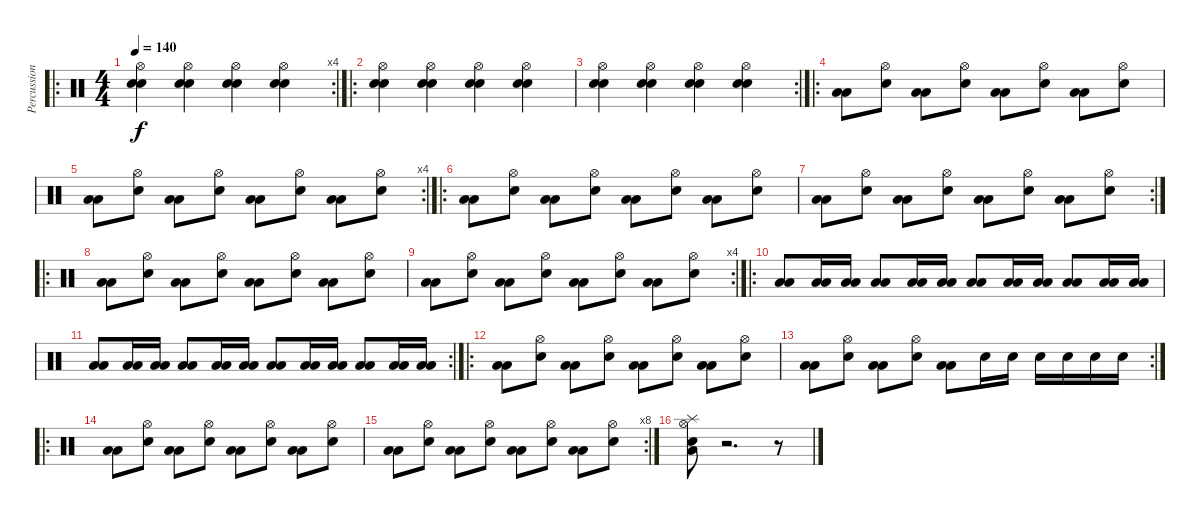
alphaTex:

\track ("Percussions" "Percussion") {instrument percussion}
\staff {score}
\articulation defaults
\ro
\rc 4
\ts (4 4)
\tempo 140
\clef neutral
\ks c
("Snare (hit) 2" "Electric Snare (hit)" "Hi-Hat (open)").4{dy f} ("Snare (hit) 2" "Electric Snare (hit)" "Hi-Hat (open)").4 ("Snare (hit) 2" "Electric Snare (hit)" "Hi-Hat (open)").4 ("Snare (hit) 2" "Electric Snare (hit)" "Hi-Hat (open)").4 |
\ro
("Snare (hit) 2" "Electric Snare (hit)" "Hi-Hat (open)").4 ("Snare (hit) 2" "Electric Snare (hit)" "Hi-Hat (open)").4 ("Snare (hit) 2" "Electric Snare (hit)" "Hi-Hat (open)").4 ("Snare (hit) 2" "Electric Snare (hit)" "Hi-Hat (open)").4 |
\rc 2
("Snare (hit) 2" "Electric Snare (hit)" "Hi-Hat (open)").4 ("Snare (hit) 2" "Electric Snare (hit)" "Hi-Hat (open)").4 ("Snare (hit) 2" "Electric Snare (hit)" "Hi-Hat (open)").4 ("Snare (hit) 2" "Electric Snare (hit)" "Hi-Hat (open)").4 |
\ro
("Low Floor Tom (hit)" "Low Floor Tom (hit)").8 ("Snare (hit) 2" "Hi-Hat (open)").8 ("Low Floor Tom (hit)" "Low Floor Tom (hit)").8 ("Snare (hit) 2" "Hi-Hat (open)").8 ("Low Floor Tom (hit)" "Low Floor Tom (hit)").8 ("Snare (hit) 2" "Hi-Hat (open)").8 ("Low Floor Tom (hit)" "Low Floor Tom (hit)").8 ("Snare (hit) 2" "Hi-Hat (open)").8 |
\rc 4
("Low Floor Tom (hit)" "Low Floor Tom (hit)").8 ("Snare (hit) 2" "Hi-Hat (open)").8 ("Low Floor Tom (hit)" "Low Floor Tom (hit)").8 ("Snare (hit) 2" "Hi-Hat (open)").8 ("Low Floor Tom (hit)" "Low Floor Tom (hit)").8 ("Snare (hit) 2" "Hi-Hat (open)").8 ("Low Floor Tom (hit)" "Low Floor Tom (hit)").8 ("Snare (hit) 2" "Hi-Hat (open)").8 |
\ro
("Low Floor Tom (hit)" "Low Floor Tom (hit)").8 ("Snare (hit) 2" "Hi-Hat (open)").8 ("Low Floor Tom (hit)" "Low Floor Tom (hit)").8 ("Snare (hit) 2" "Hi-Hat (open)").8 ("Low Floor Tom (hit)" "Low Floor Tom (hit)").8 ("Snare (hit) 2" "Hi-Hat (open)").8 ("Low Floor Tom (hit)" "Low Floor Tom (hit)").8 ("Snare (hit) 2" "Hi-Hat (open)").8 |
\rc 2
("Low Floor Tom (hit)" "Low Floor Tom (hit)").8 ("Snare (hit) 2" "Hi-Hat (open)").8 ("Low Floor Tom (hit)" "Low Floor Tom (hit)").8 ("Snare (hit) 2" "Hi-Hat (open)").8 ("Low Floor Tom (hit)" "Low Floor Tom (hit)").8 ("Snare (hit) 2" "Hi-Hat (open)").8 ("Low Floor Tom (hit)" "Low Floor Tom (hit)").8 ("Snare (hit) 2" "Hi-Hat (open)").8 |
\ro
("Low Floor Tom (hit)" "Low Floor Tom (hit)").8 ("Snare (hit) 2" "Hi-Hat (open)").8 ("Low Floor Tom (hit)" "Low Floor Tom (hit)").8 ("Snare (hit) 2" "Hi-Hat (open)").8 ("Low Floor Tom (hit)" "Low Floor Tom (hit)").8 ("Snare (hit) 2" "Hi-Hat (open)").8 ("Low Floor Tom (hit)" "Low Floor Tom (hit)").8 ("Snare (hit) 2" "Hi-Hat (open)").8 |
\rc 4
("Low Floor Tom (hit)" "Low Floor Tom (hit)").8 ("Snare (hit) 2" "Hi-Hat (open)").8 ("Low Floor Tom (hit)" "Low Floor Tom (hit)").8 ("Snare (hit) 2" "Hi-Hat (open)").8 ("Low Floor Tom (hit)" "Low Floor Tom (hit)").8 ("Snare (hit) 2" "Hi-Hat (open)").8 ("Low Floor Tom (hit)" "Low Floor Tom (hit)").8 ("Snare (hit) 2" "Hi-Hat (open)").8 |
\ro
("Low Floor Tom (hit)" "Low Floor Tom (hit)").8 ("Low Floor Tom (hit)" "Low Floor Tom (hit)").16 ("Low Floor Tom (hit)" "Low Floor Tom (hit)").16 ("Low Floor Tom (hit)" "Low Floor Tom (hit)").8 ("Low Floor Tom (hit)" "Low Floor Tom (hit)").16 ("Low Floor Tom (hit)" "Low Floor Tom (hit)").16 ("Low Floor Tom (hit)" "Low Floor Tom (hit)").8 ("Low Floor Tom (hit)" "Low Floor Tom (hit)").16 ("Low Floor Tom (hit)" "Low Floor Tom (hit)").16 ("Low Floor Tom (hit)" "Low Floor Tom (hit)").8 ("Low Floor Tom (hit)" "Low Floor Tom (hit)").16 ("Low Floor Tom (hit)" "Low Floor Tom (hit)").16 |
\rc 2
("Low Floor Tom (hit)" "Low Floor Tom (hit)").8 ("Low Floor Tom (hit)" "Low Floor Tom (hit)").16 ("Low Floor Tom (hit)" "Low Floor Tom (hit)").16 ("Low Floor Tom (hit)" "Low Floor Tom (hit)").8 ("Low Floor Tom (hit)" "Low Floor Tom (hit)").16 ("Low Floor Tom (hit)" "Low Floor Tom (hit)").16 ("Low Floor Tom (hit)" "Low Floor Tom (hit)").8 ("Low Floor Tom (hit)" "Low Floor Tom (hit)").16 ("Low Floor Tom (hit)" "Low Floor Tom (hit)").16 ("Low Floor Tom (hit)" "Low Floor Tom (hit)").8 ("Low Floor Tom (hit)" "Low Floor Tom (hit)").16 ("Low Floor Tom (hit)" "Low Floor Tom (hit)").16 |
\ro
("Low Floor Tom (hit)" "Low Floor Tom (hit)").8 ("Snare (hit) 2" "Hi-Hat (open)").8 ("Low Floor Tom (hit)" "Low Floor Tom (hit)").8 ("Snare (hit) 2" "Hi-Hat (open)").8 ("Low Floor Tom (hit)" "Low Floor Tom (hit)").8 ("Snare (hit) 2" "Hi-Hat (open)").8 ("Low Floor Tom (hit)" "Low Floor Tom (hit)").8 ("Snare (hit) 2" "Hi-Hat (open)").8 |
\rc 2
("Low Floor Tom (hit)" "Low Floor Tom (hit)").8 ("Snare (hit) 2" "Hi-Hat (open)").8 ("Low Floor Tom (hit)" "Low Floor Tom (hit)").8 ("Snare (hit) 2" "Hi-Hat (open)").8 ("Low Floor Tom (hit)" "Low Floor Tom (hit)").8 "Snare (hit) 2".16 "Snare (hit) 2".16 "Snare (hit) 2".16 "Snare (hit) 2".16 "Snare (hit) 2".16 "Snare (hit) 2".16 |
\ro
("Low Floor Tom (hit)" "Low Floor Tom (hit)").8 ("Snare (hit) 2" "Hi-Hat (open)").8 ("Low Floor Tom (hit)" "Low Floor Tom (hit)").8 ("Snare (hit) 2" "Hi-Hat (open)").8 ("Low Floor Tom (hit)" "Low Floor Tom (hit)").8 ("Snare (hit) 2" "Hi-Hat (open)").8 ("Low Floor Tom (hit)" "Low Floor Tom (hit)").8 ("Snare (hit) 2" "Hi-Hat (open)").8 |
\rc 8
("Low Floor Tom (hit)" "Low Floor Tom (hit)").8 ("Snare (hit) 2" "Hi-Hat (open)").8 ("Low Floor Tom (hit)" "Low Floor Tom (hit)").8 ("Snare (hit) 2" "Hi-Hat (open)").8 ("Low Floor Tom (hit)" "Low Floor Tom (hit)").8 ("Snare (hit) 2" "Hi-Hat (open)").8 ("Low Floor Tom (hit)" "Low Floor Tom (hit)").8 ("Snare (hit) 2" "Hi-Hat (open)").8 |
("Snare (hit) 2" "Low Floor Tom (hit)" "Hi-Hat (open)" "Splash (hit)").8 r.2{d} r.8
